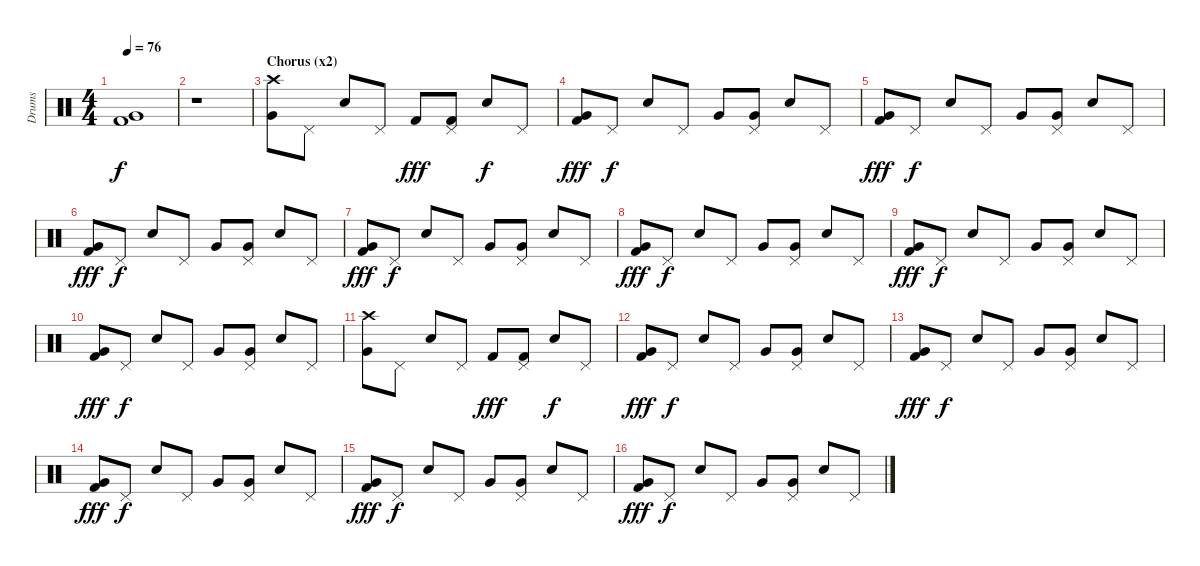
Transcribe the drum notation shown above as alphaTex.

\track ("Drums" "Drums") {instrument percussion}
\staff {score}
\articulation defaults
\ts (4 4)
\tempo 76
\clef neutral
\ks c
("Kick (hit) 2" "Very Low Tom (hit)").1{dy f} |
r.1 |
\section ("" "Chorus (x2)")
("Crash high (hit)" "Very Low Tom (hit)").8 "Pedal Hi-Hat (hit)".8 "Electric Snare (hit)".8 "Pedal Hi-Hat (hit)".8 "Kick (hit) 2".8{dy fff} ("Kick (hit) 2" "Pedal Hi-Hat (hit)").8 "Electric Snare (hit)".8{dy f} "Pedal Hi-Hat (hit)".8 |
("Kick (hit) 2" "Very Low Tom (hit)").8{dy fff} "Pedal Hi-Hat (hit)".8{dy f} "Electric Snare (hit)".8 "Pedal Hi-Hat (hit)".8 "Very Low Tom (hit)".8 ("Very Low Tom (hit)" "Pedal Hi-Hat (hit)").8 "Electric Snare (hit)".8 "Pedal Hi-Hat (hit)".8 |
("Kick (hit) 2" "Very Low Tom (hit)").8{dy fff} "Pedal Hi-Hat (hit)".8{dy f} "Electric Snare (hit)".8 "Pedal Hi-Hat (hit)".8 "Very Low Tom (hit)".8 ("Very Low Tom (hit)" "Pedal Hi-Hat (hit)").8 "Electric Snare (hit)".8 "Pedal Hi-Hat (hit)".8 |
("Kick (hit) 2" "Very Low Tom (hit)").8{dy fff} "Pedal Hi-Hat (hit)".8{dy f} "Electric Snare (hit)".8 "Pedal Hi-Hat (hit)".8 "Very Low Tom (hit)".8 ("Very Low Tom (hit)" "Pedal Hi-Hat (hit)").8 "Electric Snare (hit)".8 "Pedal Hi-Hat (hit)".8 |
("Kick (hit) 2" "Very Low Tom (hit)").8{dy fff} "Pedal Hi-Hat (hit)".8{dy f} "Electric Snare (hit)".8 "Pedal Hi-Hat (hit)".8 "Very Low Tom (hit)".8 ("Very Low Tom (hit)" "Pedal Hi-Hat (hit)").8 "Electric Snare (hit)".8 "Pedal Hi-Hat (hit)".8 |
("Kick (hit) 2" "Very Low Tom (hit)").8{dy fff} "Pedal Hi-Hat (hit)".8{dy f} "Electric Snare (hit)".8 "Pedal Hi-Hat (hit)".8 "Very Low Tom (hit)".8 ("Very Low Tom (hit)" "Pedal Hi-Hat (hit)").8 "Electric Snare (hit)".8 "Pedal Hi-Hat (hit)".8 |
("Kick (hit) 2" "Very Low Tom (hit)").8{dy fff} "Pedal Hi-Hat (hit)".8{dy f} "Electric Snare (hit)".8 "Pedal Hi-Hat (hit)".8 "Very Low Tom (hit)".8 ("Very Low Tom (hit)" "Pedal Hi-Hat (hit)").8 "Electric Snare (hit)".8 "Pedal Hi-Hat (hit)".8 |
("Kick (hit) 2" "Very Low Tom (hit)").8{dy fff} "Pedal Hi-Hat (hit)".8{dy f} "Electric Snare (hit)".8 "Pedal Hi-Hat (hit)".8 "Very Low Tom (hit)".8 ("Very Low Tom (hit)" "Pedal Hi-Hat (hit)").8 "Electric Snare (hit)".8 "Pedal Hi-Hat (hit)".8 |
("Crash high (hit)" "Very Low Tom (hit)").8 "Pedal Hi-Hat (hit)".8 "Electric Snare (hit)".8 "Pedal Hi-Hat (hit)".8 "Kick (hit) 2".8{dy fff} ("Kick (hit) 2" "Pedal Hi-Hat (hit)").8 "Electric Snare (hit)".8{dy f} "Pedal Hi-Hat (hit)".8 |
("Kick (hit) 2" "Very Low Tom (hit)").8{dy fff} "Pedal Hi-Hat (hit)".8{dy f} "Electric Snare (hit)".8 "Pedal Hi-Hat (hit)".8 "Very Low Tom (hit)".8 ("Very Low Tom (hit)" "Pedal Hi-Hat (hit)").8 "Electric Snare (hit)".8 "Pedal Hi-Hat (hit)".8 |
("Kick (hit) 2" "Very Low Tom (hit)").8{dy fff} "Pedal Hi-Hat (hit)".8{dy f} "Electric Snare (hit)".8 "Pedal Hi-Hat (hit)".8 "Very Low Tom (hit)".8 ("Very Low Tom (hit)" "Pedal Hi-Hat (hit)").8 "Electric Snare (hit)".8 "Pedal Hi-Hat (hit)".8 |
("Kick (hit) 2" "Very Low Tom (hit)").8{dy fff} "Pedal Hi-Hat (hit)".8{dy f} "Electric Snare (hit)".8 "Pedal Hi-Hat (hit)".8 "Very Low Tom (hit)".8 ("Very Low Tom (hit)" "Pedal Hi-Hat (hit)").8 "Electric Snare (hit)".8 "Pedal Hi-Hat (hit)".8 |
("Kick (hit) 2" "Very Low Tom (hit)").8{dy fff} "Pedal Hi-Hat (hit)".8{dy f} "Electric Snare (hit)".8 "Pedal Hi-Hat (hit)".8 "Very Low Tom (hit)".8 ("Very Low Tom (hit)" "Pedal Hi-Hat (hit)").8 "Electric Snare (hit)".8 "Pedal Hi-Hat (hit)".8 |
("Kick (hit) 2" "Very Low Tom (hit)").8{dy fff} "Pedal Hi-Hat (hit)".8{dy f} "Electric Snare (hit)".8 "Pedal Hi-Hat (hit)".8 "Very Low Tom (hit)".8 ("Very Low Tom (hit)" "Pedal Hi-Hat (hit)").8 "Electric Snare (hit)".8 "Pedal Hi-Hat (hit)".8
